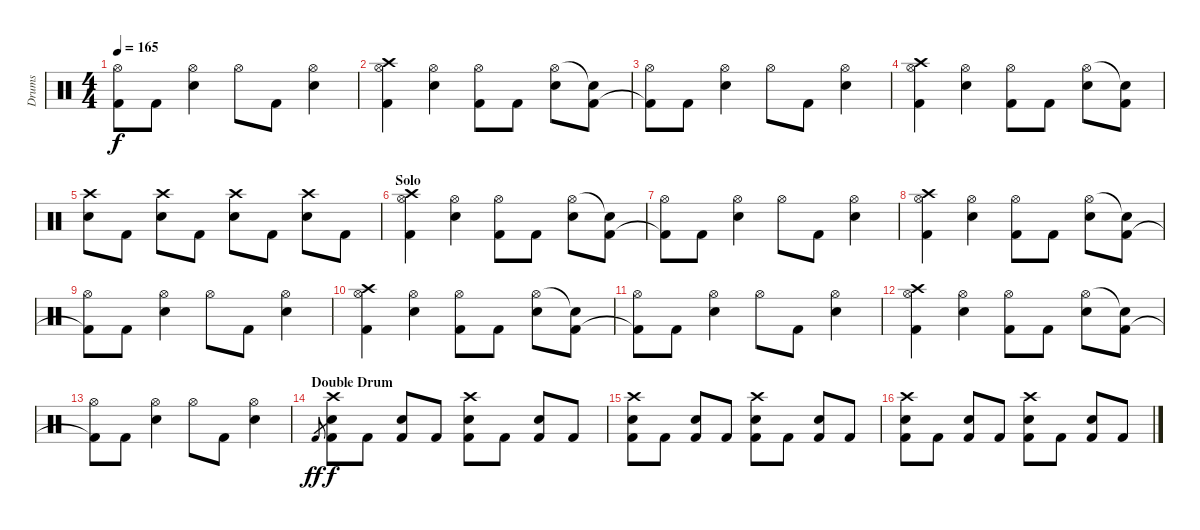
\track ("Drums" "Drums") {instrument percussion}
\staff {score}
\articulation defaults
\ts (4 4)
\tempo 165
\clef neutral
\ks c
("Hi-Hat (open)" "Kick (hit) 2"{t}).8{dy f} "Kick (hit) 2".8 ("Hi-Hat (open)" "Snare (hit) 2").4 "Hi-Hat (open)".8 "Kick (hit) 2".8 ("Hi-Hat (open)" "Snare (hit) 2").4 |
("Crash high (hit)" "Hi-Hat (open)" "Kick (hit) 2").4 ("Hi-Hat (open)" "Snare (hit) 2").4 ("Hi-Hat (open)" "Kick (hit) 2").8 "Kick (hit) 2".8 ("Hi-Hat (open)" "Snare (hit) 2").8 ("Snare (hit) 2"{t} "Kick (hit) 2").8 |
("Hi-Hat (open)" "Kick (hit) 2"{t}).8 "Kick (hit) 2".8 ("Hi-Hat (open)" "Snare (hit) 2").4 "Hi-Hat (open)".8 "Kick (hit) 2".8 ("Hi-Hat (open)" "Snare (hit) 2").4 |
("Crash high (hit)" "Hi-Hat (open)" "Kick (hit) 2").4 ("Hi-Hat (open)" "Snare (hit) 2").4 ("Hi-Hat (open)" "Kick (hit) 2").8 "Kick (hit) 2".8 ("Hi-Hat (open)" "Snare (hit) 2").8 ("Snare (hit) 2"{t} "Kick (hit) 2").8 |
("Crash high (hit)" "Snare (hit) 2").8 "Kick (hit) 2".8 ("Crash high (hit)" "Snare (hit) 2").8 "Kick (hit) 2".8 ("Crash high (hit)" "Snare (hit) 2").8 "Kick (hit) 2".8 ("Crash high (hit)" "Snare (hit) 2").8 "Kick (hit) 2".8 |
\section ("" "Solo")
("Crash high (hit)" "Hi-Hat (open)" "Kick (hit) 2").4 ("Hi-Hat (open)" "Snare (hit) 2").4 ("Hi-Hat (open)" "Kick (hit) 2").8 "Kick (hit) 2".8 ("Hi-Hat (open)" "Snare (hit) 2").8 ("Snare (hit) 2"{t} "Kick (hit) 2").8 |
("Hi-Hat (open)" "Kick (hit) 2"{t}).8 "Kick (hit) 2".8 ("Hi-Hat (open)" "Snare (hit) 2").4 "Hi-Hat (open)".8 "Kick (hit) 2".8 ("Hi-Hat (open)" "Snare (hit) 2").4 |
("Crash high (hit)" "Hi-Hat (open)" "Kick (hit) 2").4 ("Hi-Hat (open)" "Snare (hit) 2").4 ("Hi-Hat (open)" "Kick (hit) 2").8 "Kick (hit) 2".8 ("Hi-Hat (open)" "Snare (hit) 2").8 ("Snare (hit) 2"{t} "Kick (hit) 2").8 |
("Hi-Hat (open)" "Kick (hit) 2"{t}).8 "Kick (hit) 2".8 ("Hi-Hat (open)" "Snare (hit) 2").4 "Hi-Hat (open)".8 "Kick (hit) 2".8 ("Hi-Hat (open)" "Snare (hit) 2").4 |
("Crash high (hit)" "Hi-Hat (open)" "Kick (hit) 2").4 ("Hi-Hat (open)" "Snare (hit) 2").4 ("Hi-Hat (open)" "Kick (hit) 2").8 "Kick (hit) 2".8 ("Hi-Hat (open)" "Snare (hit) 2").8 ("Snare (hit) 2"{t} "Kick (hit) 2").8 |
("Hi-Hat (open)" "Kick (hit) 2"{t}).8 "Kick (hit) 2".8 ("Hi-Hat (open)" "Snare (hit) 2").4 "Hi-Hat (open)".8 "Kick (hit) 2".8 ("Hi-Hat (open)" "Snare (hit) 2").4 |
("Crash high (hit)" "Hi-Hat (open)" "Kick (hit) 2").4 ("Hi-Hat (open)" "Snare (hit) 2").4 ("Hi-Hat (open)" "Kick (hit) 2").8 "Kick (hit) 2".8 ("Hi-Hat (open)" "Snare (hit) 2").8 ("Snare (hit) 2"{t} "Kick (hit) 2").8 |
("Hi-Hat (open)" "Kick (hit) 2"{t}).8 "Kick (hit) 2".8 ("Hi-Hat (open)" "Snare (hit) 2").4 "Hi-Hat (open)".8 "Kick (hit) 2".8 ("Hi-Hat (open)" "Snare (hit) 2").4 |
\section ("" "Double Drum")
"Kick (hit) 2".8{gr dy ff} ("Crash high (hit)" "Snare (hit) 2" "Kick (hit) 2").8{dy f} "Kick (hit) 2".8 ("Snare (hit) 2" "Kick (hit) 2").8 "Kick (hit) 2".8 ("Crash high (hit)" "Snare (hit) 2" "Kick (hit) 2").8 "Kick (hit) 2".8 ("Snare (hit) 2" "Kick (hit) 2").8 "Kick (hit) 2".8 |
("Crash high (hit)" "Snare (hit) 2" "Kick (hit) 2").8 "Kick (hit) 2".8 ("Snare (hit) 2" "Kick (hit) 2").8 "Kick (hit) 2".8 ("Crash high (hit)" "Snare (hit) 2" "Kick (hit) 2").8 "Kick (hit) 2".8 ("Snare (hit) 2" "Kick (hit) 2").8 "Kick (hit) 2".8 |
("Crash high (hit)" "Snare (hit) 2" "Kick (hit) 2").8 "Kick (hit) 2".8 ("Snare (hit) 2" "Kick (hit) 2").8 "Kick (hit) 2".8 ("Crash high (hit)" "Snare (hit) 2" "Kick (hit) 2").8 "Kick (hit) 2".8 ("Snare (hit) 2" "Kick (hit) 2").8 "Kick (hit) 2".8
